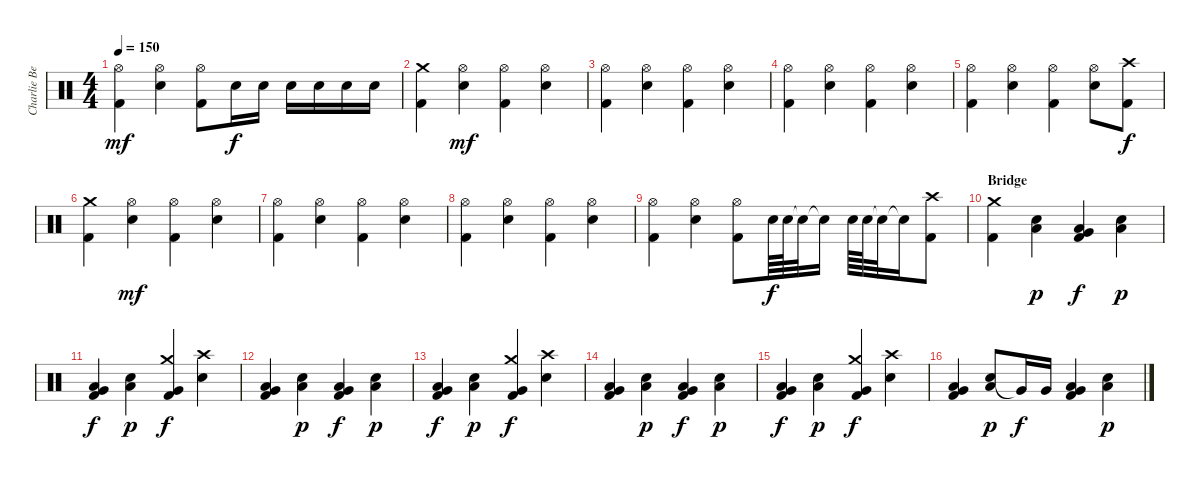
\track ("Charlie Benante" "Charlie Be") {instrument percussion}
\staff {score}
\articulation defaults
\ts (4 4)
\tempo 150
\clef neutral
\ks c
("Kick (hit) 2" "Hi-Hat (open)").4{dy mf} ("Hi-Hat (open)" "Snare (hit) 2").4 ("Kick (hit) 2" "Hi-Hat (open)").8 "Snare (hit) 2".16{dy f} "Snare (hit) 2".16 "Snare (hit) 2".16 "Snare (hit) 2".16 "Snare (hit) 2".16 "Snare (hit) 2".16 |
("Kick (hit) 2" "Crash medium (hit)").4 ("Hi-Hat (open)" "Snare (hit) 2").4{dy mf} ("Kick (hit) 2" "Hi-Hat (open)").4 ("Hi-Hat (open)" "Snare (hit) 2").4 |
("Kick (hit) 2" "Hi-Hat (open)").4 ("Hi-Hat (open)" "Snare (hit) 2").4 ("Kick (hit) 2" "Hi-Hat (open)").4 ("Hi-Hat (open)" "Snare (hit) 2").4 |
("Kick (hit) 2" "Hi-Hat (open)").4 ("Hi-Hat (open)" "Snare (hit) 2").4 ("Kick (hit) 2" "Hi-Hat (open)").4 ("Hi-Hat (open)" "Snare (hit) 2").4 |
("Kick (hit) 2" "Hi-Hat (open)").4 ("Hi-Hat (open)" "Snare (hit) 2").4 ("Kick (hit) 2" "Hi-Hat (open)").4 ("Hi-Hat (open)" "Snare (hit) 2").8 ("Kick (hit) 2" "Crash high (hit)").8{dy f} |
("Kick (hit) 2" "Crash medium (hit)").4 ("Hi-Hat (open)" "Snare (hit) 2").4{dy mf} ("Kick (hit) 2" "Hi-Hat (open)").4 ("Hi-Hat (open)" "Snare (hit) 2").4 |
("Kick (hit) 2" "Hi-Hat (open)").4 ("Hi-Hat (open)" "Snare (hit) 2").4 ("Kick (hit) 2" "Hi-Hat (open)").4 ("Hi-Hat (open)" "Snare (hit) 2").4 |
("Kick (hit) 2" "Hi-Hat (open)").4 ("Hi-Hat (open)" "Snare (hit) 2").4 ("Kick (hit) 2" "Hi-Hat (open)").4 ("Hi-Hat (open)" "Snare (hit) 2").4 |
("Kick (hit) 2" "Hi-Hat (open)").4 ("Hi-Hat (open)" "Snare (hit) 2").4 ("Kick (hit) 2" "Hi-Hat (open)").8 "Snare (hit) 2".64{dy f} "Snare (hit) 2".64 "Snare (hit)"{t}.32 "Snare (hit)"{t}.16 "Snare (hit) 2".64 "Snare (hit) 2".64 "Snare (hit)"{t}.32 "Snare (hit)"{t}.16 ("Kick (hit) 2" "Crash high (hit)").8 |
\section ("" "Bridge")
("Kick (hit) 2" "Crash medium (hit)").4 ("Snare (hit) 2" "Low Tom (hit)").4{dy p} ("Kick (hit) 2" "Low Tom (hit)" "Very Low Tom (hit)").4{dy f} ("Snare (hit) 2" "Low Tom (hit)").4{dy p} |
("Kick (hit) 2" "Low Tom (hit)" "Very Low Tom (hit)").4{dy f} ("Snare (hit) 2" "Low Tom (hit)").4{dy p} ("Kick (hit) 2" "Crash medium (hit)" "Very Low Tom (hit)").4{dy f} ("Crash high (hit)" "Snare (hit) 2").4 |
("Kick (hit) 2" "Low Tom (hit)" "Very Low Tom (hit)").4 ("Snare (hit) 2" "Low Tom (hit)").4{dy p} ("Kick (hit) 2" "Low Tom (hit)" "Very Low Tom (hit)").4{dy f} ("Snare (hit) 2" "Low Tom (hit)").4{dy p} |
("Kick (hit) 2" "Low Tom (hit)" "Very Low Tom (hit)").4{dy f} ("Snare (hit) 2" "Low Tom (hit)").4{dy p} ("Kick (hit) 2" "Crash medium (hit)" "Very Low Tom (hit)").4{dy f} ("Crash high (hit)" "Snare (hit) 2").4 |
("Kick (hit) 2" "Low Tom (hit)" "Very Low Tom (hit)").4 ("Snare (hit) 2" "Low Tom (hit)").4{dy p} ("Kick (hit) 2" "Low Tom (hit)" "Very Low Tom (hit)").4{dy f} ("Snare (hit) 2" "Low Tom (hit)").4{dy p} |
("Kick (hit) 2" "Low Tom (hit)" "Very Low Tom (hit)").4{dy f} ("Snare (hit) 2" "Low Tom (hit)").4{dy p} ("Kick (hit) 2" "Crash medium (hit)" "Very Low Tom (hit)").4{dy f} ("Crash high (hit)" "Snare (hit) 2").4 |
("Kick (hit) 2" "Low Tom (hit)" "Very Low Tom (hit)").4 ("Snare (hit) 2" "Low Tom (hit)").8{dy p} "Very Low Tom (hit)"{t}.16{dy f} "Very Low Tom (hit)".16 ("Kick (hit) 2" "Low Tom (hit)" "Very Low Tom (hit)").4 ("Snare (hit) 2" "Low Tom (hit)").4{dy p}
